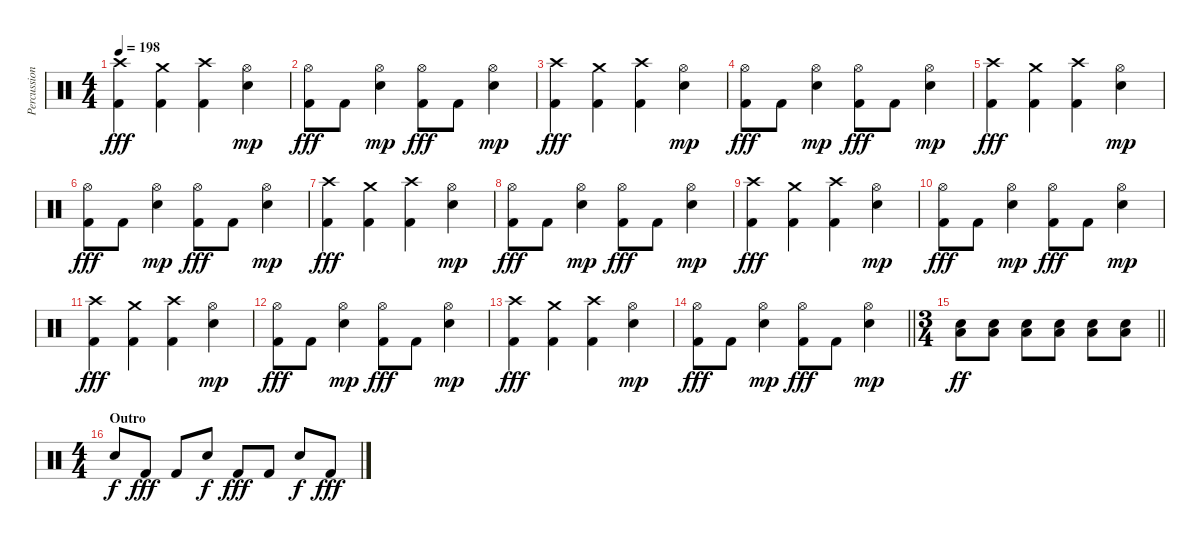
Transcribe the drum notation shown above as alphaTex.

\track ("Percussion" "Percussion") {instrument percussion}
\staff {score}
\articulation defaults
\ts (4 4)
\tempo 198
\clef neutral
\ks c
("Crash high (hit)" "Kick (hit) 2").4{dy fff} ("Crash medium (hit)" "Kick (hit) 2").4 ("Crash high (hit)" "Kick (hit) 2").4 ("Hi-Hat (open)" "Snare (hit) 2").4{dy mp} |
("Hi-Hat (open)" "Kick (hit) 2").8{dy fff} "Kick (hit) 2".8 ("Hi-Hat (open)" "Snare (hit) 2").4{dy mp} ("Hi-Hat (open)" "Kick (hit) 2").8{dy fff} "Kick (hit) 2".8 ("Hi-Hat (open)" "Snare (hit) 2").4{dy mp} |
("Crash high (hit)" "Kick (hit) 2").4{dy fff} ("Crash medium (hit)" "Kick (hit) 2").4 ("Crash high (hit)" "Kick (hit) 2").4 ("Hi-Hat (open)" "Snare (hit) 2").4{dy mp} |
("Hi-Hat (open)" "Kick (hit) 2").8{dy fff} "Kick (hit) 2".8 ("Hi-Hat (open)" "Snare (hit) 2").4{dy mp} ("Hi-Hat (open)" "Kick (hit) 2").8{dy fff} "Kick (hit) 2".8 ("Hi-Hat (open)" "Snare (hit) 2").4{dy mp} |
("Crash high (hit)" "Kick (hit) 2").4{dy fff} ("Crash medium (hit)" "Kick (hit) 2").4 ("Crash high (hit)" "Kick (hit) 2").4 ("Hi-Hat (open)" "Snare (hit) 2").4{dy mp} |
("Hi-Hat (open)" "Kick (hit) 2").8{dy fff} "Kick (hit) 2".8 ("Hi-Hat (open)" "Snare (hit) 2").4{dy mp} ("Hi-Hat (open)" "Kick (hit) 2").8{dy fff} "Kick (hit) 2".8 ("Hi-Hat (open)" "Snare (hit) 2").4{dy mp} |
("Crash high (hit)" "Kick (hit) 2").4{dy fff} ("Crash medium (hit)" "Kick (hit) 2").4 ("Crash high (hit)" "Kick (hit) 2").4 ("Hi-Hat (open)" "Snare (hit) 2").4{dy mp} |
("Hi-Hat (open)" "Kick (hit) 2").8{dy fff} "Kick (hit) 2".8 ("Hi-Hat (open)" "Snare (hit) 2").4{dy mp} ("Hi-Hat (open)" "Kick (hit) 2").8{dy fff} "Kick (hit) 2".8 ("Hi-Hat (open)" "Snare (hit) 2").4{dy mp} |
("Crash high (hit)" "Kick (hit) 2").4{dy fff} ("Crash medium (hit)" "Kick (hit) 2").4 ("Crash high (hit)" "Kick (hit) 2").4 ("Hi-Hat (open)" "Snare (hit) 2").4{dy mp} |
("Hi-Hat (open)" "Kick (hit) 2").8{dy fff} "Kick (hit) 2".8 ("Hi-Hat (open)" "Snare (hit) 2").4{dy mp} ("Hi-Hat (open)" "Kick (hit) 2").8{dy fff} "Kick (hit) 2".8 ("Hi-Hat (open)" "Snare (hit) 2").4{dy mp} |
("Crash high (hit)" "Kick (hit) 2").4{dy fff} ("Crash medium (hit)" "Kick (hit) 2").4 ("Crash high (hit)" "Kick (hit) 2").4 ("Hi-Hat (open)" "Snare (hit) 2").4{dy mp} |
("Hi-Hat (open)" "Kick (hit) 2").8{dy fff} "Kick (hit) 2".8 ("Hi-Hat (open)" "Snare (hit) 2").4{dy mp} ("Hi-Hat (open)" "Kick (hit) 2").8{dy fff} "Kick (hit) 2".8 ("Hi-Hat (open)" "Snare (hit) 2").4{dy mp} |
("Crash high (hit)" "Kick (hit) 2").4{dy fff} ("Crash medium (hit)" "Kick (hit) 2").4 ("Crash high (hit)" "Kick (hit) 2").4 ("Hi-Hat (open)" "Snare (hit) 2").4{dy mp} |
\barLineRight lightlight
("Hi-Hat (open)" "Kick (hit) 2").8{dy fff} "Kick (hit) 2".8 ("Hi-Hat (open)" "Snare (hit) 2").4{dy mp} ("Hi-Hat (open)" "Kick (hit) 2").8{dy fff} "Kick (hit) 2".8 ("Hi-Hat (open)" "Snare (hit) 2").4{dy mp} |
\ts (3 4)
\barLineRight lightlight
("Low Floor Tom (hit)" "Snare (hit) 2").8{dy ff} ("Low Floor Tom (hit)" "Snare (hit) 2").8 ("Low Floor Tom (hit)" "Snare (hit) 2").8 ("Low Floor Tom (hit)" "Snare (hit) 2").8 ("Low Floor Tom (hit)" "Snare (hit) 2").8 ("Low Floor Tom (hit)" "Snare (hit) 2").8 |
\ts (4 4)
\section ("" "Outro")
"Snare (hit) 2".8{dy f} "Kick (hit) 2".8{dy fff} "Kick (hit) 2".8 "Snare (hit) 2".8{dy f} "Kick (hit) 2".8{dy fff} "Kick (hit) 2".8 "Snare (hit) 2".8{dy f} "Kick (hit) 2".8{dy fff}
